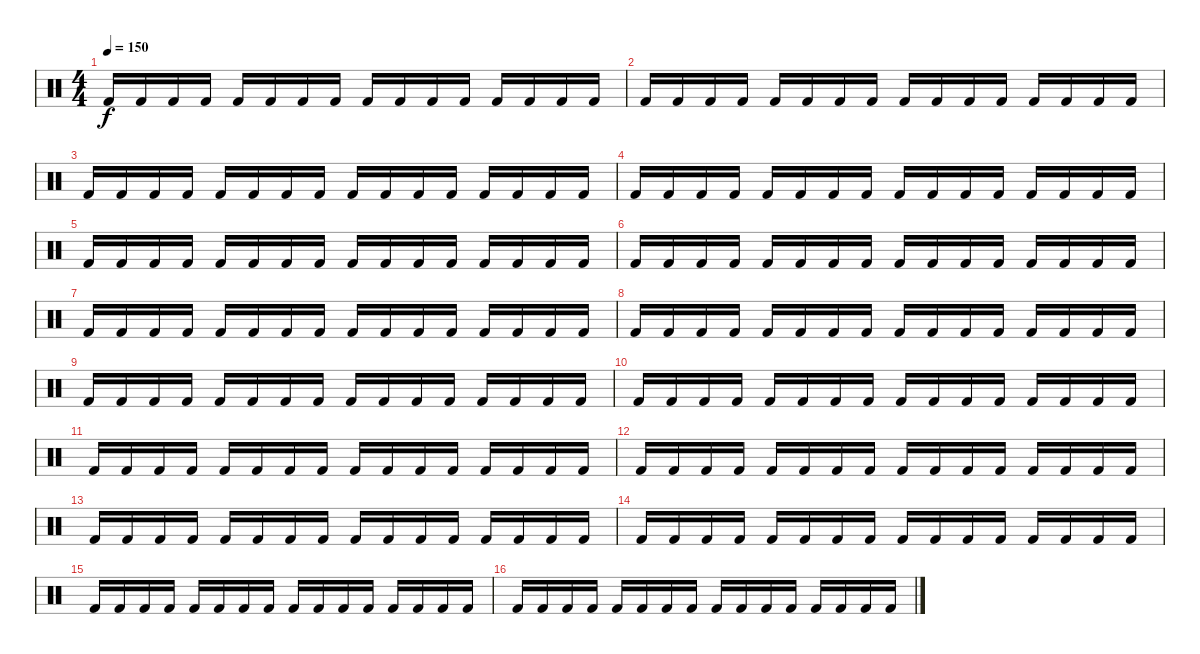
\track "" {instrument percussion}
\staff {score}
\articulation defaults
\ts (4 4)
\tempo 150
\clef neutral
\ks c "Kick (hit) 2".16{dy f} "Kick (hit) 2".16 "Kick (hit) 2".16 "Kick (hit) 2".16 "Kick (hit) 2".16 "Kick (hit) 2".16 "Kick (hit) 2".16 "Kick (hit) 2".16 "Kick (hit) 2".16 "Kick (hit) 2".16 "Kick (hit) 2".16 "Kick (hit) 2".16 "Kick (hit) 2".16 "Kick (hit) 2".16 "Kick (hit) 2".16 "Kick (hit) 2".16
|
"Kick (hit) 2".16 "Kick (hit) 2".16 "Kick (hit) 2".16 "Kick (hit) 2".16 "Kick (hit) 2".16 "Kick (hit) 2".16 "Kick (hit) 2".16 "Kick (hit) 2".16 "Kick (hit) 2".16 "Kick (hit) 2".16 "Kick (hit) 2".16 "Kick (hit) 2".16 "Kick (hit) 2".16 "Kick (hit) 2".16 "Kick (hit) 2".16 "Kick (hit) 2".16 |
"Kick (hit) 2".16 "Kick (hit) 2".16 "Kick (hit) 2".16 "Kick (hit) 2".16 "Kick (hit) 2".16 "Kick (hit) 2".16 "Kick (hit) 2".16 "Kick (hit) 2".16 "Kick (hit) 2".16 "Kick (hit) 2".16 "Kick (hit) 2".16 "Kick (hit) 2".16 "Kick (hit) 2".16 "Kick (hit) 2".16 "Kick (hit) 2".16 "Kick (hit) 2".16 |
"Kick (hit) 2".16 "Kick (hit) 2".16 "Kick (hit) 2".16 "Kick (hit) 2".16 "Kick (hit) 2".16 "Kick (hit) 2".16 "Kick (hit) 2".16 "Kick (hit) 2".16 "Kick (hit) 2".16 "Kick (hit) 2".16 "Kick (hit) 2".16 "Kick (hit) 2".16 "Kick (hit) 2".16 "Kick (hit) 2".16 "Kick (hit) 2".16 "Kick (hit) 2".16 |
"Kick (hit) 2".16 "Kick (hit) 2".16 "Kick (hit) 2".16 "Kick (hit) 2".16 "Kick (hit) 2".16 "Kick (hit) 2".16 "Kick (hit) 2".16 "Kick (hit) 2".16 "Kick (hit) 2".16 "Kick (hit) 2".16 "Kick (hit) 2".16 "Kick (hit) 2".16 "Kick (hit) 2".16 "Kick (hit) 2".16 "Kick (hit) 2".16 "Kick (hit) 2".16 |
"Kick (hit) 2".16 "Kick (hit) 2".16 "Kick (hit) 2".16 "Kick (hit) 2".16 "Kick (hit) 2".16 "Kick (hit) 2".16 "Kick (hit) 2".16 "Kick (hit) 2".16 "Kick (hit) 2".16 "Kick (hit) 2".16 "Kick (hit) 2".16 "Kick (hit) 2".16 "Kick (hit) 2".16 "Kick (hit) 2".16 "Kick (hit) 2".16 "Kick (hit) 2".16 |
"Kick (hit) 2".16 "Kick (hit) 2".16 "Kick (hit) 2".16 "Kick (hit) 2".16 "Kick (hit) 2".16 "Kick (hit) 2".16 "Kick (hit) 2".16 "Kick (hit) 2".16 "Kick (hit) 2".16 "Kick (hit) 2".16 "Kick (hit) 2".16 "Kick (hit) 2".16 "Kick (hit) 2".16 "Kick (hit) 2".16 "Kick (hit) 2".16 "Kick (hit) 2".16 |
"Kick (hit) 2".16 "Kick (hit) 2".16 "Kick (hit) 2".16 "Kick (hit) 2".16 "Kick (hit) 2".16 "Kick (hit) 2".16 "Kick (hit) 2".16 "Kick (hit) 2".16 "Kick (hit) 2".16 "Kick (hit) 2".16 "Kick (hit) 2".16 "Kick (hit) 2".16 "Kick (hit) 2".16 "Kick (hit) 2".16 "Kick (hit) 2".16 "Kick (hit) 2".16 |
"Kick (hit) 2".16 "Kick (hit) 2".16 "Kick (hit) 2".16 "Kick (hit) 2".16 "Kick (hit) 2".16 "Kick (hit) 2".16 "Kick (hit) 2".16 "Kick (hit) 2".16 "Kick (hit) 2".16 "Kick (hit) 2".16 "Kick (hit) 2".16 "Kick (hit) 2".16 "Kick (hit) 2".16 "Kick (hit) 2".16 "Kick (hit) 2".16 "Kick (hit) 2".16 |
"Kick (hit) 2".16 "Kick (hit) 2".16 "Kick (hit) 2".16 "Kick (hit) 2".16 "Kick (hit) 2".16 "Kick (hit) 2".16 "Kick (hit) 2".16 "Kick (hit) 2".16 "Kick (hit) 2".16 "Kick (hit) 2".16 "Kick (hit) 2".16 "Kick (hit) 2".16 "Kick (hit) 2".16 "Kick (hit) 2".16 "Kick (hit) 2".16 "Kick (hit) 2".16 |
"Kick (hit) 2".16 "Kick (hit) 2".16 "Kick (hit) 2".16 "Kick (hit) 2".16 "Kick (hit) 2".16 "Kick (hit) 2".16 "Kick (hit) 2".16 "Kick (hit) 2".16 "Kick (hit) 2".16 "Kick (hit) 2".16 "Kick (hit) 2".16 "Kick (hit) 2".16 "Kick (hit) 2".16 "Kick (hit) 2".16 "Kick (hit) 2".16 "Kick (hit) 2".16 |
"Kick (hit) 2".16 "Kick (hit) 2".16 "Kick (hit) 2".16 "Kick (hit) 2".16 "Kick (hit) 2".16 "Kick (hit) 2".16 "Kick (hit) 2".16 "Kick (hit) 2".16 "Kick (hit) 2".16 "Kick (hit) 2".16 "Kick (hit) 2".16 "Kick (hit) 2".16 "Kick (hit) 2".16 "Kick (hit) 2".16 "Kick (hit) 2".16 "Kick (hit) 2".16 |
"Kick (hit) 2".16 "Kick (hit) 2".16 "Kick (hit) 2".16 "Kick (hit) 2".16 "Kick (hit) 2".16 "Kick (hit) 2".16 "Kick (hit) 2".16 "Kick (hit) 2".16 "Kick (hit) 2".16 "Kick (hit) 2".16 "Kick (hit) 2".16 "Kick (hit) 2".16 "Kick (hit) 2".16 "Kick (hit) 2".16 "Kick (hit) 2".16 "Kick (hit) 2".16 |
"Kick (hit) 2".16 "Kick (hit) 2".16 "Kick (hit) 2".16 "Kick (hit) 2".16 "Kick (hit) 2".16 "Kick (hit) 2".16 "Kick (hit) 2".16 "Kick (hit) 2".16 "Kick (hit) 2".16 "Kick (hit) 2".16 "Kick (hit) 2".16 "Kick (hit) 2".16 "Kick (hit) 2".16 "Kick (hit) 2".16 "Kick (hit) 2".16 "Kick (hit) 2".16 |
"Kick (hit) 2".16 "Kick (hit) 2".16 "Kick (hit) 2".16 "Kick (hit) 2".16 "Kick (hit) 2".16 "Kick (hit) 2".16 "Kick (hit) 2".16 "Kick (hit) 2".16 "Kick (hit) 2".16 "Kick (hit) 2".16 "Kick (hit) 2".16 "Kick (hit) 2".16 "Kick (hit) 2".16 "Kick (hit) 2".16 "Kick (hit) 2".16 "Kick (hit) 2".16 |
"Kick (hit) 2".16 "Kick (hit) 2".16 "Kick (hit) 2".16 "Kick (hit) 2".16 "Kick (hit) 2".16 "Kick (hit) 2".16 "Kick (hit) 2".16 "Kick (hit) 2".16 "Kick (hit) 2".16 "Kick (hit) 2".16 "Kick (hit) 2".16 "Kick (hit) 2".16 "Kick (hit) 2".16 "Kick (hit) 2".16 "Kick (hit) 2".16 "Kick (hit) 2".16
